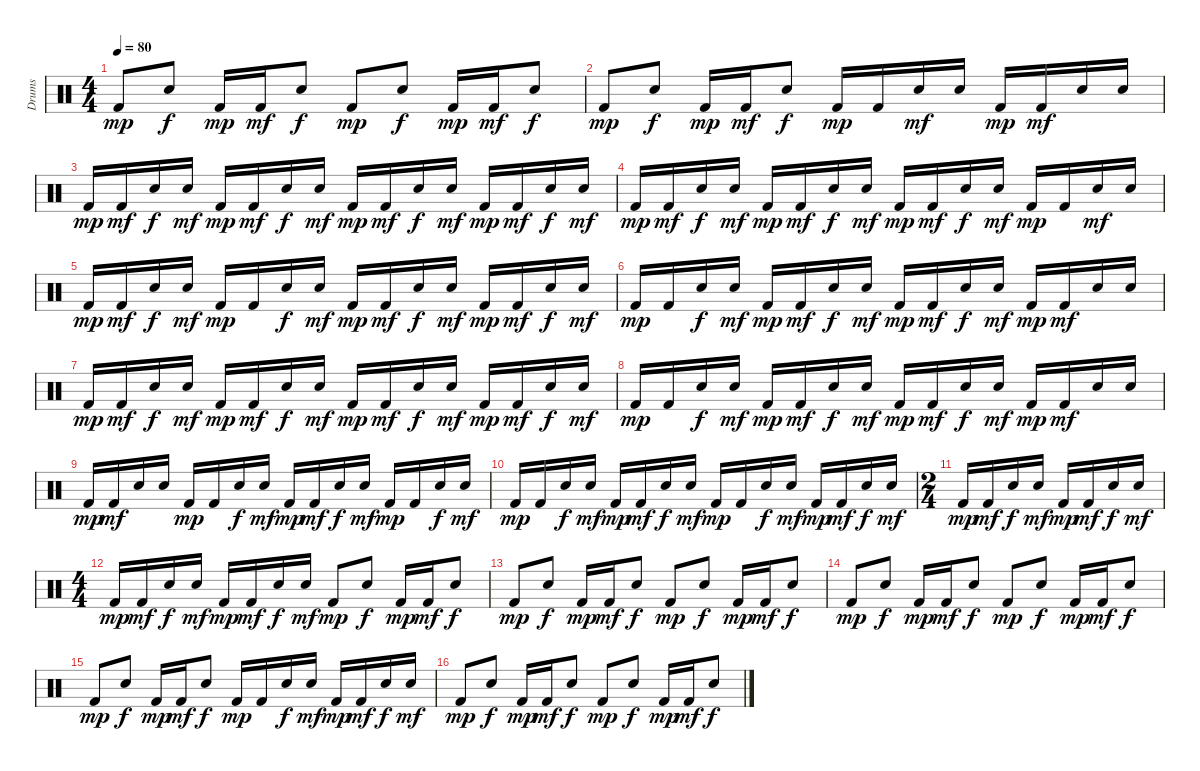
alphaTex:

\track ("Drums" "Drums") {instrument percussion}
\staff {score}
\articulation defaults
\ts (4 4)
\tempo 80
\clef neutral
\ks c "Kick (hit) 2".8{dy mp} "Snare (hit) 2".8{dy f} "Kick (hit) 2".16{dy mp} "Kick (hit) 2".16{dy mf} "Snare (hit) 2".8{dy f} "Kick (hit) 2".8{dy mp} "Snare (hit) 2".8{dy f} "Kick (hit) 2".16{dy mp} "Kick (hit) 2".16{dy mf} "Snare (hit) 2".8{dy f}
|
"Kick (hit) 2".8{dy mp} "Snare (hit) 2".8{dy f} "Kick (hit) 2".16{dy mp} "Kick (hit) 2".16{dy mf} "Snare (hit) 2".8{dy f} "Kick (hit) 2".16{dy mp} "Kick (hit) 2".16 "Snare (hit) 2".16{dy mf} "Snare (hit) 2".16 "Kick (hit) 2".16{dy mp} "Kick (hit) 2".16{dy mf} "Snare (hit) 2".16 "Snare (hit) 2".16 |
"Kick (hit) 2".16{dy mp} "Kick (hit) 2".16{dy mf} "Snare (hit) 2".16{dy f} "Snare (hit) 2".16{dy mf} "Kick (hit) 2".16{dy mp} "Kick (hit) 2".16{dy mf} "Snare (hit) 2".16{dy f} "Snare (hit) 2".16{dy mf} "Kick (hit) 2".16{dy mp} "Kick (hit) 2".16{dy mf} "Snare (hit) 2".16{dy f} "Snare (hit) 2".16{dy mf} "Kick (hit) 2".16{dy mp} "Kick (hit) 2".16{dy mf} "Snare (hit) 2".16{dy f} "Snare (hit) 2".16{dy mf} |
"Kick (hit) 2".16{dy mp} "Kick (hit) 2".16{dy mf} "Snare (hit) 2".16{dy f} "Snare (hit) 2".16{dy mf} "Kick (hit) 2".16{dy mp} "Kick (hit) 2".16{dy mf} "Snare (hit) 2".16{dy f} "Snare (hit) 2".16{dy mf} "Kick (hit) 2".16{dy mp} "Kick (hit) 2".16{dy mf} "Snare (hit) 2".16{dy f} "Snare (hit) 2".16{dy mf} "Kick (hit) 2".16{dy mp} "Kick (hit) 2".16 "Snare (hit) 2".16{dy mf} "Snare (hit) 2".16 |
"Kick (hit) 2".16{dy mp} "Kick (hit) 2".16{dy mf} "Snare (hit) 2".16{dy f} "Snare (hit) 2".16{dy mf} "Kick (hit) 2".16{dy mp} "Kick (hit) 2".16 "Snare (hit) 2".16{dy f} "Snare (hit) 2".16{dy mf} "Kick (hit) 2".16{dy mp} "Kick (hit) 2".16{dy mf} "Snare (hit) 2".16{dy f} "Snare (hit) 2".16{dy mf} "Kick (hit) 2".16{dy mp} "Kick (hit) 2".16{dy mf} "Snare (hit) 2".16{dy f} "Snare (hit) 2".16{dy mf} |
"Kick (hit) 2".16{dy mp} "Kick (hit) 2".16 "Snare (hit) 2".16{dy f} "Snare (hit) 2".16{dy mf} "Kick (hit) 2".16{dy mp} "Kick (hit) 2".16{dy mf} "Snare (hit) 2".16{dy f} "Snare (hit) 2".16{dy mf} "Kick (hit) 2".16{dy mp} "Kick (hit) 2".16{dy mf} "Snare (hit) 2".16{dy f} "Snare (hit) 2".16{dy mf} "Kick (hit) 2".16{dy mp} "Kick (hit) 2".16{dy mf} "Snare (hit) 2".16 "Snare (hit) 2".16 |
"Kick (hit) 2".16{dy mp} "Kick (hit) 2".16{dy mf} "Snare (hit) 2".16{dy f} "Snare (hit) 2".16{dy mf} "Kick (hit) 2".16{dy mp} "Kick (hit) 2".16{dy mf} "Snare (hit) 2".16{dy f} "Snare (hit) 2".16{dy mf} "Kick (hit) 2".16{dy mp} "Kick (hit) 2".16{dy mf} "Snare (hit) 2".16{dy f} "Snare (hit) 2".16{dy mf} "Kick (hit) 2".16{dy mp} "Kick (hit) 2".16{dy mf} "Snare (hit) 2".16{dy f} "Snare (hit) 2".16{dy mf} |
"Kick (hit) 2".16{dy mp} "Kick (hit) 2".16 "Snare (hit) 2".16{dy f} "Snare (hit) 2".16{dy mf} "Kick (hit) 2".16{dy mp} "Kick (hit) 2".16{dy mf} "Snare (hit) 2".16{dy f} "Snare (hit) 2".16{dy mf} "Kick (hit) 2".16{dy mp} "Kick (hit) 2".16{dy mf} "Snare (hit) 2".16{dy f} "Snare (hit) 2".16{dy mf} "Kick (hit) 2".16{dy mp} "Kick (hit) 2".16{dy mf} "Snare (hit) 2".16 "Snare (hit) 2".16 |
"Kick (hit) 2".16{dy mp} "Kick (hit) 2".16{dy mf} "Snare (hit) 2".16 "Snare (hit) 2".16 "Kick (hit) 2".16{dy mp} "Kick (hit) 2".16 "Snare (hit) 2".16{dy f} "Snare (hit) 2".16{dy mf} "Kick (hit) 2".16{dy mp} "Kick (hit) 2".16{dy mf} "Snare (hit) 2".16{dy f} "Snare (hit) 2".16{dy mf} "Kick (hit) 2".16{dy mp} "Kick (hit) 2".16 "Snare (hit) 2".16{dy f} "Snare (hit) 2".16{dy mf} |
"Kick (hit) 2".16{dy mp} "Kick (hit) 2".16 "Snare (hit) 2".16{dy f} "Snare (hit) 2".16{dy mf} "Kick (hit) 2".16{dy mp} "Kick (hit) 2".16{dy mf} "Snare (hit) 2".16{dy f} "Snare (hit) 2".16{dy mf} "Kick (hit) 2".16{dy mp} "Kick (hit) 2".16 "Snare (hit) 2".16{dy f} "Snare (hit) 2".16{dy mf} "Kick (hit) 2".16{dy mp} "Kick (hit) 2".16{dy mf} "Snare (hit) 2".16{dy f} "Snare (hit) 2".16{dy mf} |
\ts (2 4)
"Kick (hit) 2".16{dy mp} "Kick (hit) 2".16{dy mf} "Snare (hit) 2".16{dy f} "Snare (hit) 2".16{dy mf} "Kick (hit) 2".16{dy mp} "Kick (hit) 2".16{dy mf} "Snare (hit) 2".16{dy f} "Snare (hit) 2".16{dy mf} |
\ts (4 4)
"Kick (hit) 2".16{dy mp} "Kick (hit) 2".16{dy mf} "Snare (hit) 2".16{dy f} "Snare (hit) 2".16{dy mf} "Kick (hit) 2".16{dy mp} "Kick (hit) 2".16{dy mf} "Snare (hit) 2".16{dy f} "Snare (hit) 2".16{dy mf} "Kick (hit) 2".8{dy mp} "Snare (hit) 2".8{dy f} "Kick (hit) 2".16{dy mp} "Kick (hit) 2".16{dy mf} "Snare (hit) 2".8{dy f} |
"Kick (hit) 2".8{dy mp} "Snare (hit) 2".8{dy f} "Kick (hit) 2".16{dy mp} "Kick (hit) 2".16{dy mf} "Snare (hit) 2".8{dy f} "Kick (hit) 2".8{dy mp} "Snare (hit) 2".8{dy f} "Kick (hit) 2".16{dy mp} "Kick (hit) 2".16{dy mf} "Snare (hit) 2".8{dy f} |
"Kick (hit) 2".8{dy mp} "Snare (hit) 2".8{dy f} "Kick (hit) 2".16{dy mp} "Kick (hit) 2".16{dy mf} "Snare (hit) 2".8{dy f} "Kick (hit) 2".8{dy mp} "Snare (hit) 2".8{dy f} "Kick (hit) 2".16{dy mp} "Kick (hit) 2".16{dy mf} "Snare (hit) 2".8{dy f} |
"Kick (hit) 2".8{dy mp} "Snare (hit) 2".8{dy f} "Kick (hit) 2".16{dy mp} "Kick (hit) 2".16{dy mf} "Snare (hit) 2".8{dy f} "Kick (hit) 2".16{dy mp} "Kick (hit) 2".16 "Snare (hit) 2".16{dy f} "Snare (hit) 2".16{dy mf} "Kick (hit) 2".16{dy mp} "Kick (hit) 2".16{dy mf} "Snare (hit) 2".16{dy f} "Snare (hit) 2".16{dy mf} |
"Kick (hit) 2".8{dy mp} "Snare (hit) 2".8{dy f} "Kick (hit) 2".16{dy mp} "Kick (hit) 2".16{dy mf} "Snare (hit) 2".8{dy f} "Kick (hit) 2".8{dy mp} "Snare (hit) 2".8{dy f} "Kick (hit) 2".16{dy mp} "Kick (hit) 2".16{dy mf} "Snare (hit) 2".8{dy f}
